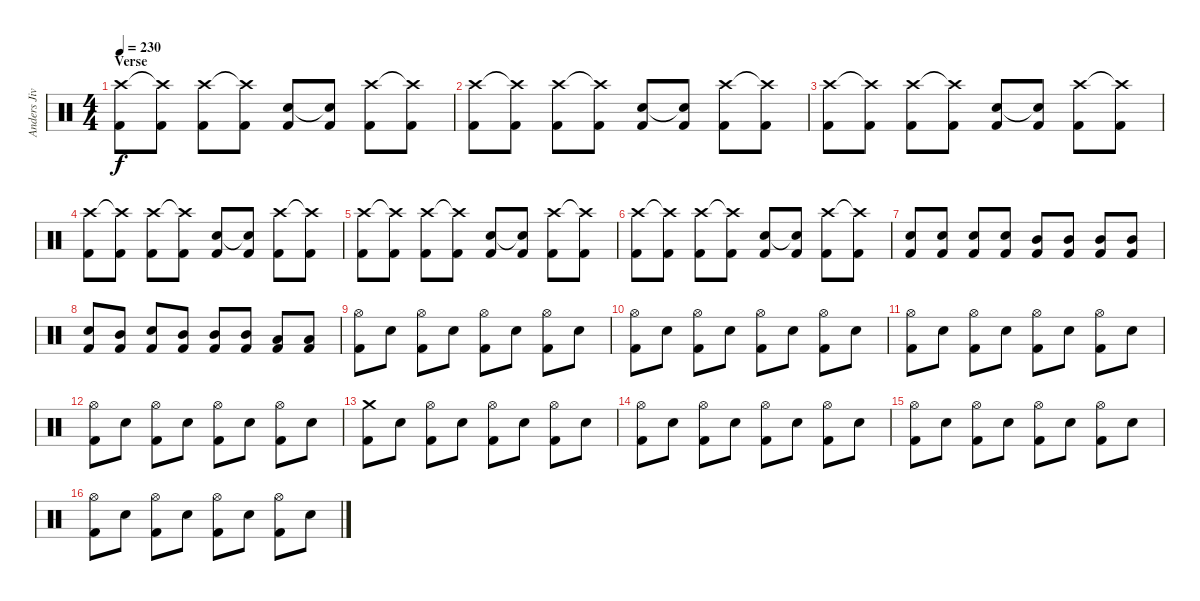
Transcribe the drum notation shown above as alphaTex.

\track ("Anders Jivarp" "Anders Jiv") {instrument percussion}
\staff {score}
\articulation defaults
\ts (4 4)
\section ("" "Verse")
\tempo 230
\clef neutral
\ks c
("Kick (hit) 2" "Crash high (hit)").8{dy f} ("Kick (hit) 2" "Crash high (hit)"{t}).8 ("Kick (hit) 2" "Crash high (hit)").8 ("Kick (hit) 2" "Crash high (hit)"{t}).8 ("Kick (hit) 2" "Electric Snare (hit)").8 ("Kick (hit) 2" "Electric Snare (hit)"{t}).8 ("Kick (hit) 2" "Crash high (hit)").8 ("Kick (hit) 2" "Crash high (hit)"{t}).8 |
("Kick (hit) 2" "Crash high (hit)").8 ("Kick (hit) 2" "Crash high (hit)"{t}).8 ("Kick (hit) 2" "Crash high (hit)").8 ("Kick (hit) 2" "Crash high (hit)"{t}).8 ("Kick (hit) 2" "Electric Snare (hit)").8 ("Kick (hit) 2" "Electric Snare (hit)"{t}).8 ("Kick (hit) 2" "Crash high (hit)").8 ("Kick (hit) 2" "Crash high (hit)"{t}).8 |
("Kick (hit) 2" "Crash high (hit)").8 ("Kick (hit) 2" "Crash high (hit)"{t}).8 ("Kick (hit) 2" "Crash high (hit)").8 ("Kick (hit) 2" "Crash high (hit)"{t}).8 ("Kick (hit) 2" "Electric Snare (hit)").8 ("Kick (hit) 2" "Electric Snare (hit)"{t}).8 ("Kick (hit) 2" "Crash high (hit)").8 ("Kick (hit) 2" "Crash high (hit)"{t}).8 |
("Kick (hit) 2" "Crash high (hit)").8 ("Kick (hit) 2" "Crash high (hit)"{t}).8 ("Kick (hit) 2" "Crash high (hit)").8 ("Kick (hit) 2" "Crash high (hit)"{t}).8 ("Kick (hit) 2" "Electric Snare (hit)").8 ("Kick (hit) 2" "Electric Snare (hit)"{t}).8 ("Kick (hit) 2" "Crash high (hit)").8 ("Kick (hit) 2" "Crash high (hit)"{t}).8 |
("Kick (hit) 2" "Crash high (hit)").8 ("Kick (hit) 2" "Crash high (hit)"{t}).8 ("Kick (hit) 2" "Crash high (hit)").8 ("Kick (hit) 2" "Crash high (hit)"{t}).8 ("Kick (hit) 2" "Electric Snare (hit)").8 ("Kick (hit) 2" "Electric Snare (hit)"{t}).8 ("Kick (hit) 2" "Crash high (hit)").8 ("Kick (hit) 2" "Crash high (hit)"{t}).8 |
("Kick (hit) 2" "Crash high (hit)").8 ("Kick (hit) 2" "Crash high (hit)"{t}).8 ("Kick (hit) 2" "Crash high (hit)").8 ("Kick (hit) 2" "Crash high (hit)"{t}).8 ("Kick (hit) 2" "Electric Snare (hit)").8 ("Kick (hit) 2" "Electric Snare (hit)"{t}).8 ("Kick (hit) 2" "Crash high (hit)").8 ("Kick (hit) 2" "Crash high (hit)"{t}).8 |
("Kick (hit) 2" "Electric Snare (hit)").8 ("Kick (hit) 2" "Electric Snare (hit)").8 ("Kick (hit) 2" "Electric Snare (hit)").8 ("Kick (hit) 2" "Electric Snare (hit)").8 ("Kick (hit) 2" "Mid Tom (hit)").8 ("Kick (hit) 2" "Mid Tom (hit)").8 ("Kick (hit) 2" "Mid Tom (hit)").8 ("Kick (hit) 2" "Mid Tom (hit)").8 |
("Kick (hit) 2" "Electric Snare (hit)").8 ("Kick (hit) 2" "Mid Tom (hit)").8 ("Kick (hit) 2" "Electric Snare (hit)").8 ("Kick (hit) 2" "Mid Tom (hit)").8 ("Kick (hit) 2" "Mid Tom (hit)").8 ("Kick (hit) 2" "Mid Tom (hit)").8 ("Kick (hit) 2" "Low Tom (hit)").8 ("Kick (hit) 2" "Low Tom (hit)").8 |
("Kick (hit) 2" "Hi-Hat (open)").8 "Electric Snare (hit)".8 ("Kick (hit) 2" "Hi-Hat (open)").8 "Electric Snare (hit)".8 ("Kick (hit) 2" "Hi-Hat (open)").8 "Electric Snare (hit)".8 ("Kick (hit) 2" "Hi-Hat (open)").8 "Electric Snare (hit)".8 |
("Kick (hit) 2" "Hi-Hat (open)").8 "Electric Snare (hit)".8 ("Kick (hit) 2" "Hi-Hat (open)").8 "Electric Snare (hit)".8 ("Kick (hit) 2" "Hi-Hat (open)").8 "Electric Snare (hit)".8 ("Kick (hit) 2" "Hi-Hat (open)").8 "Electric Snare (hit)".8 |
("Kick (hit) 2" "Hi-Hat (open)").8 "Electric Snare (hit)".8 ("Kick (hit) 2" "Hi-Hat (open)").8 "Electric Snare (hit)".8 ("Kick (hit) 2" "Hi-Hat (open)").8 "Electric Snare (hit)".8 ("Kick (hit) 2" "Hi-Hat (open)").8 "Electric Snare (hit)".8 |
("Kick (hit) 2" "Hi-Hat (open)").8 "Electric Snare (hit)".8 ("Kick (hit) 2" "Hi-Hat (open)").8 "Electric Snare (hit)".8 ("Kick (hit) 2" "Hi-Hat (open)").8 "Electric Snare (hit)".8 ("Kick (hit) 2" "Hi-Hat (open)").8 "Electric Snare (hit)".8 |
("Kick (hit) 2" "Crash medium (hit)").8 "Electric Snare (hit)".8 ("Kick (hit) 2" "Hi-Hat (open)").8 "Electric Snare (hit)".8 ("Kick (hit) 2" "Hi-Hat (open)").8 "Electric Snare (hit)".8 ("Kick (hit) 2" "Hi-Hat (open)").8 "Electric Snare (hit)".8 |
("Kick (hit) 2" "Hi-Hat (open)").8 "Electric Snare (hit)".8 ("Kick (hit) 2" "Hi-Hat (open)").8 "Electric Snare (hit)".8 ("Kick (hit) 2" "Hi-Hat (open)").8 "Electric Snare (hit)".8 ("Kick (hit) 2" "Hi-Hat (open)").8 "Electric Snare (hit)".8 |
("Kick (hit) 2" "Hi-Hat (open)").8 "Electric Snare (hit)".8 ("Kick (hit) 2" "Hi-Hat (open)").8 "Electric Snare (hit)".8 ("Kick (hit) 2" "Hi-Hat (open)").8 "Electric Snare (hit)".8 ("Kick (hit) 2" "Hi-Hat (open)").8 "Electric Snare (hit)".8 |
("Kick (hit) 2" "Hi-Hat (open)").8 "Electric Snare (hit)".8 ("Kick (hit) 2" "Hi-Hat (open)").8 "Electric Snare (hit)".8 ("Kick (hit) 2" "Hi-Hat (open)").8 "Electric Snare (hit)".8 ("Kick (hit) 2" "Hi-Hat (open)").8 "Electric Snare (hit)".8
